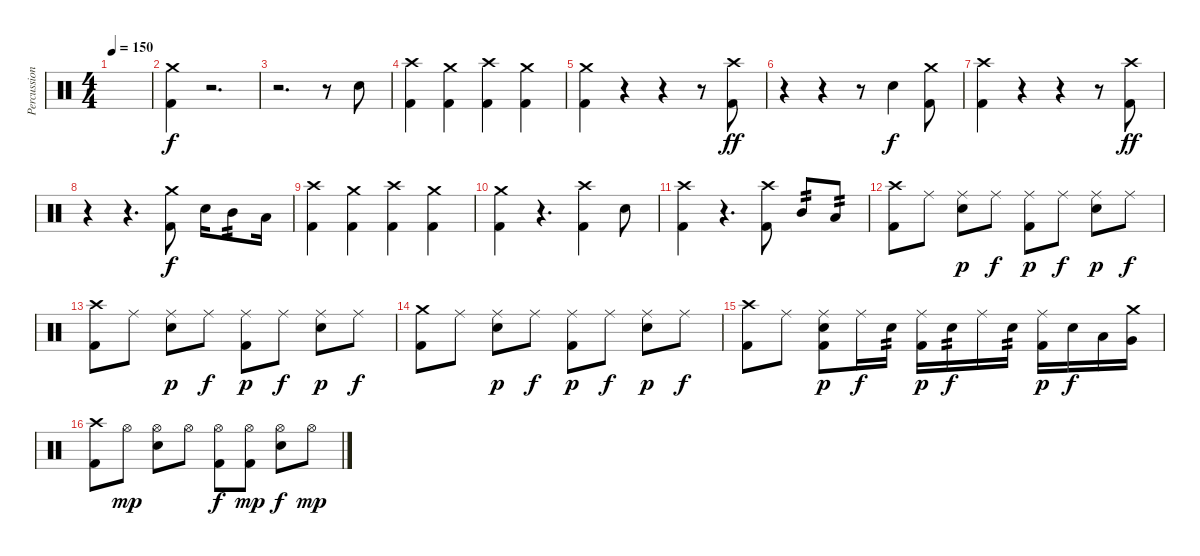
\track ("Percussion" "Percussion") {instrument percussion}
\staff {score}
\articulation defaults
\ts (4 4)
\tempo 150
\clef neutral
\ks c
|
("Crash medium (hit)" "Kick (hit) 2").4{dy f} r.2{d} |
r.2{d} r.8 "Snare (hit) 2".8 |
("Crash high (hit)" "Kick (hit) 2").4 ("Crash medium (hit)" "Kick (hit) 2").4 ("Crash high (hit)" "Kick (hit) 2").4 ("Crash medium (hit)" "Kick (hit) 2").4 |
("Crash medium (hit)" "Kick (hit) 2").4 r.4 r.4 r.8 ("Crash high (hit)" "Kick (hit) 2").8{dy ff} |
r.4 r.4 r.8 "Snare (hit) 2".4{dy f} ("Crash medium (hit)" "Kick (hit) 2").8 |
("Crash high (hit)" "Kick (hit) 2").4 r.4 r.4 r.8 ("Crash high (hit)" "Kick (hit) 2").8{dy ff} |
r.4 r.4{d} ("Crash medium (hit)" "Kick (hit) 2").8{dy f} "Snare (hit) 2".16 "Mid Tom (hit)".8{tp 2} "Low Tom (hit)".16 |
("Crash high (hit)" "Kick (hit) 2").4 ("Crash medium (hit)" "Kick (hit) 2").4 ("Crash high (hit)" "Kick (hit) 2").4 ("Crash medium (hit)" "Kick (hit) 2").4 |
("Crash medium (hit)" "Kick (hit) 2").4 r.4{d} ("Crash high (hit)" "Kick (hit) 2").4 "Snare (hit) 2".8 |
("Crash high (hit)" "Kick (hit) 2").4 r.4{d} ("Crash high (hit)" "Kick (hit) 2").8 "Mid Tom (hit)".8{tp 2} "Low Tom (hit)".8{tp 2} |
("Crash high (hit)" "Kick (hit) 2").8 "Ride (middle)".8 ("Ride (middle)" "Electric Snare (hit)").8{dy p} "Ride (middle)".8{dy f} ("Ride (middle)" "Kick (hit) 2").8{dy p} "Ride (middle)".8{dy f} ("Ride (middle)" "Electric Snare (hit)").8{dy p} "Ride (middle)".8{dy f} |
("Crash high (hit)" "Kick (hit) 2").8 "Ride (middle)".8 ("Ride (middle)" "Electric Snare (hit)").8{dy p} "Ride (middle)".8{dy f} ("Ride (middle)" "Kick (hit) 2").8{dy p} "Ride (middle)".8{dy f} ("Ride (middle)" "Electric Snare (hit)").8{dy p} "Ride (middle)".8{dy f} |
("Crash medium (hit)" "Kick (hit) 2").8 "Ride (middle)".8 ("Ride (middle)" "Electric Snare (hit)").8{dy p} "Ride (middle)".8{dy f} ("Ride (middle)" "Kick (hit) 2").8{dy p} "Ride (middle)".8{dy f} ("Ride (middle)" "Electric Snare (hit)").8{dy p} "Ride (middle)".8{dy f} |
("Crash high (hit)" "Kick (hit) 2").8 "Ride (middle)".8 ("Ride (middle)" "Electric Snare (hit)" "Kick (hit) 2").8{dy p} "Ride (middle)".16{dy f} "Electric Snare (hit)".16{tp 2} ("Ride (middle)" "Kick (hit) 2").16{dy p} "Electric Snare (hit)".16{tp 2 dy f} "Ride (middle)".16 "Electric Snare (hit)".16{tp 2} ("Ride (middle)" "Kick (hit) 2").16{dy p} "Electric Snare (hit)".16{dy f} "Low Tom (hit)".16 ("Crash medium (hit)" "Very Low Tom (hit)").16 |
("Crash high (hit)" "Kick (hit) 2").8 "Hi-Hat (open)".8{dy mp} ("Snare (hit) 2" "Hi-Hat (open)").8 "Hi-Hat (open)".8 ("Hi-Hat (open)" "Kick (hit) 2").8{dy f} ("Hi-Hat (open)" "Kick (hit) 2").8{dy mp} ("Hi-Hat (open)" "Electric Snare (hit)").8{dy f} "Hi-Hat (open)".8{dy mp}
